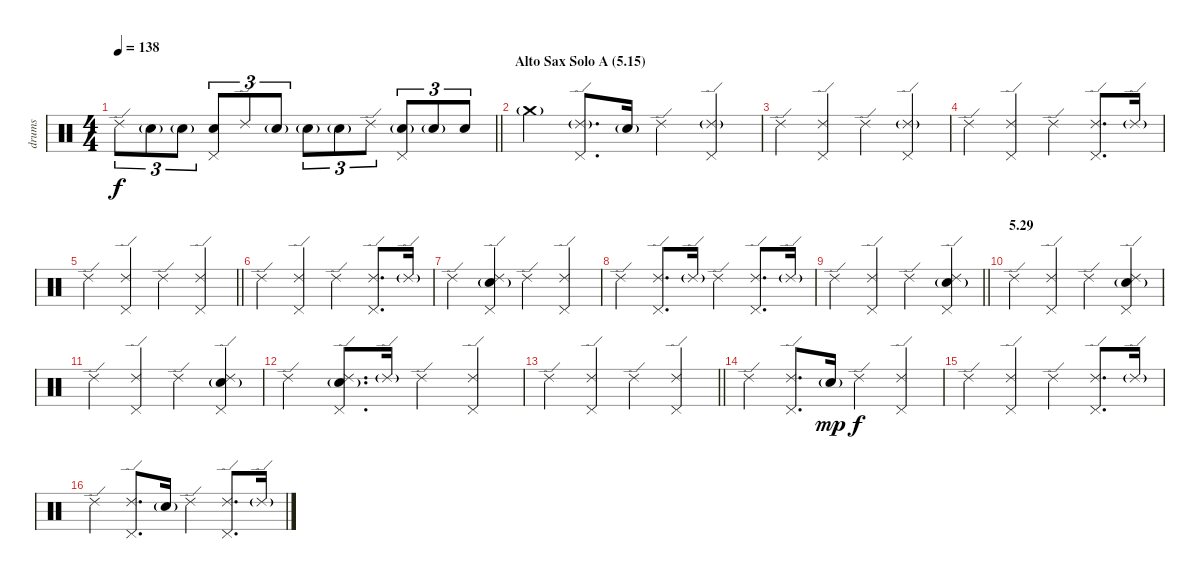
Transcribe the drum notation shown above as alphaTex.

\track ("drums" "drums") {instrument percussion}
\staff {score}
\articulation defaults
\ts (4 4)
\tempo 138
\clef neutral
\barLineRight lightlight
\ks c "Ride (edge) 2".8{tu (3 2) dy f} "Electric Snare (hit)"{g}.8{tu (3 2)} "Electric Snare (hit)"{g}.8{tu (3 2)}
("Pedal Hi-Hat (hit)" "Electric Snare (hit)").8{tu (3 2)} "Ride (edge) 2".8{tu (3 2)} "Electric Snare (hit)"{g}.8{tu (3 2)} "Electric Snare (hit)"{g}.8{tu (3 2)} "Electric Snare (hit)"{g}.8{tu (3 2)} "Ride (edge) 2".8{tu (3 2)} ("Pedal Hi-Hat (hit)" "Electric Snare (hit)"{g}).8{tu (3 2)} "Electric Snare (hit)"{g}.8{tu (3 2)} "Electric Snare (hit)".8{tu (3 2)} |
\section ("" "Alto Sax Solo A (5.15)")
"Crash medium (hit)"{g}.4 ("Ride (edge) 2"{g} "Pedal Hi-Hat (hit)").8{d} "Electric Snare (hit)"{g}.16 "Ride (edge) 2".4 ("Ride (edge) 2"{g} "Pedal Hi-Hat (hit)").4 |
"Ride (edge) 2".4 ("Ride (edge) 2" "Pedal Hi-Hat (hit)").4 "Ride (edge) 2".4 ("Ride (edge) 2"{g} "Pedal Hi-Hat (hit)").4 |
"Ride (edge) 2".4 ("Ride (edge) 2" "Pedal Hi-Hat (hit)").4 "Ride (edge) 2".4 ("Ride (edge) 2" "Pedal Hi-Hat (hit)").8{d} "Ride (edge) 2"{g}.16 |
\barLineRight lightlight "Ride (edge) 2".4
("Ride (edge) 2" "Pedal Hi-Hat (hit)").4 "Ride (edge) 2".4 ("Ride (edge) 2" "Pedal Hi-Hat (hit)").4 |
"Ride (edge) 2".4 ("Ride (edge) 2" "Pedal Hi-Hat (hit)").4 "Ride (edge) 2".4 ("Ride (edge) 2" "Pedal Hi-Hat (hit)").8{d} "Ride (edge) 2"{g}.16 |
"Ride (edge) 2".4 ("Ride (edge) 2" "Pedal Hi-Hat (hit)" "Electric Snare (hit)"{g}).4 "Ride (edge) 2".4 ("Ride (edge) 2" "Pedal Hi-Hat (hit)").4 |
"Ride (edge) 2".4 ("Ride (edge) 2" "Pedal Hi-Hat (hit)").8{d} "Ride (edge) 2"{g}.16 "Ride (edge) 2".4 ("Ride (edge) 2" "Pedal Hi-Hat (hit)").8{d} "Ride (edge) 2"{g}.16 |
\barLineRight lightlight "Ride (edge) 2".4
("Ride (edge) 2" "Pedal Hi-Hat (hit)").4 "Ride (edge) 2".4 ("Ride (edge) 2" "Pedal Hi-Hat (hit)" "Electric Snare (hit)"{g}).4 |
\section ("" "5.29")
"Ride (edge) 2".4 ("Ride (edge) 2" "Pedal Hi-Hat (hit)").4 "Ride (edge) 2".4 ("Ride (edge) 2" "Pedal Hi-Hat (hit)" "Electric Snare (hit)"{g}).4 |
"Ride (edge) 2".4 ("Ride (edge) 2" "Pedal Hi-Hat (hit)").4 "Ride (edge) 2".4 ("Ride (edge) 2" "Pedal Hi-Hat (hit)" "Electric Snare (hit)"{g}).4 |
"Ride (edge) 2".4 ("Ride (edge) 2" "Pedal Hi-Hat (hit)" "Electric Snare (hit)"{g}).8{d} "Ride (edge) 2"{g}.16 "Ride (edge) 2".4 ("Ride (edge) 2" "Pedal Hi-Hat (hit)").4 |
\barLineRight lightlight "Ride (edge) 2".4
("Ride (edge) 2" "Pedal Hi-Hat (hit)").4 "Ride (edge) 2".4 ("Ride (edge) 2" "Pedal Hi-Hat (hit)").4 |
"Ride (edge) 2".4 ("Ride (edge) 2" "Pedal Hi-Hat (hit)").8{d} "Electric Snare (hit)"{g}.16{dy mp} "Ride (edge) 2".4{dy f} ("Ride (edge) 2" "Pedal Hi-Hat (hit)").4 |
"Ride (edge) 2".4 ("Ride (edge) 2" "Pedal Hi-Hat (hit)").4 "Ride (edge) 2".4 ("Ride (edge) 2" "Pedal Hi-Hat (hit)").8{d} "Ride (edge) 2"{g}.16 |
"Ride (edge) 2".4 ("Ride (edge) 2" "Pedal Hi-Hat (hit)").8{d} "Electric Snare (hit)"{g}.16 "Ride (edge) 2".4 ("Ride (edge) 2" "Pedal Hi-Hat (hit)").8{d} "Ride (edge) 2"{g}.16
